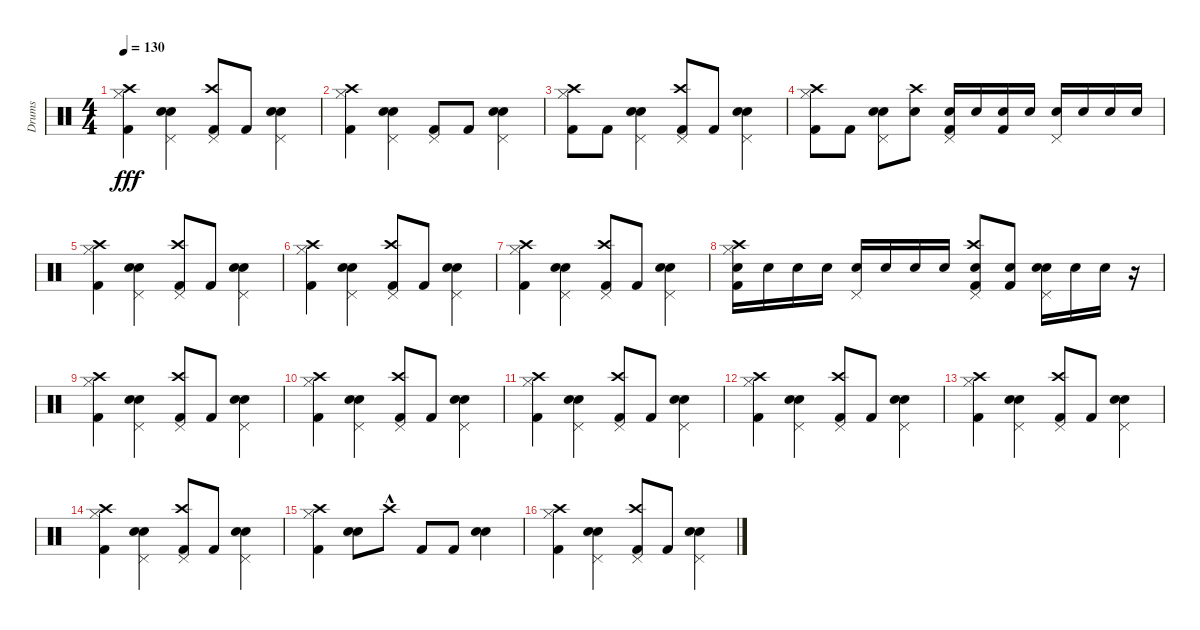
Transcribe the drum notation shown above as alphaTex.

\track ("Drums" "Drums") {instrument percussion}
\staff {score}
\articulation defaults
\ts (4 4)
\tempo 130
\clef neutral
\ks c
("Hi-Hat (closed)" "Kick (hit) 2" "Crash high (hit)").4{dy fff} ("Electric Snare (hit)" "Pedal Hi-Hat (hit)" "Snare (hit) 2").4 ("Pedal Hi-Hat (hit)" "Kick (hit) 2" "Crash high (hit)").8 "Kick (hit) 2".8 ("Electric Snare (hit)" "Pedal Hi-Hat (hit)" "Snare (hit) 2").4 |
("Hi-Hat (closed)" "Kick (hit) 2" "Crash high (hit)").4 ("Electric Snare (hit)" "Pedal Hi-Hat (hit)" "Snare (hit) 2").4 ("Pedal Hi-Hat (hit)" "Kick (hit) 2").8 "Kick (hit) 2".8 ("Electric Snare (hit)" "Pedal Hi-Hat (hit)" "Snare (hit) 2").4 |
("Hi-Hat (closed)" "Kick (hit) 2" "Crash high (hit)").8 "Kick (hit) 2".8 ("Electric Snare (hit)" "Pedal Hi-Hat (hit)" "Snare (hit) 2").4 ("Pedal Hi-Hat (hit)" "Kick (hit) 2" "Crash high (hit)").8 "Kick (hit) 2".8 ("Electric Snare (hit)" "Pedal Hi-Hat (hit)" "Snare (hit) 2").4 |
("Hi-Hat (closed)" "Kick (hit) 2" "Crash high (hit)").8 "Kick (hit) 2".8 ("Electric Snare (hit)" "Pedal Hi-Hat (hit)" "Snare (hit) 2").8 ("Crash high (hit)" "Snare (hit) 2").8 ("Pedal Hi-Hat (hit)" "Kick (hit) 2" "Snare (hit) 2").16 "Snare (hit) 2".16 ("Kick (hit) 2" "Snare (hit) 2").16 "Snare (hit) 2".16 ("Pedal Hi-Hat (hit)" "Electric Snare (hit)").16 "Electric Snare (hit)".16 "Snare (hit) 2".16 "Snare (hit) 2".16 |
("Hi-Hat (closed)" "Kick (hit) 2" "Crash high (hit)").4 ("Electric Snare (hit)" "Pedal Hi-Hat (hit)" "Snare (hit) 2").4 ("Pedal Hi-Hat (hit)" "Kick (hit) 2" "Crash high (hit)").8 "Kick (hit) 2".8 ("Electric Snare (hit)" "Pedal Hi-Hat (hit)" "Snare (hit) 2").4 |
("Hi-Hat (closed)" "Kick (hit) 2" "Crash high (hit)").4 ("Electric Snare (hit)" "Pedal Hi-Hat (hit)" "Snare (hit) 2").4 ("Pedal Hi-Hat (hit)" "Kick (hit) 2" "Crash high (hit)").8 "Kick (hit) 2".8 ("Electric Snare (hit)" "Pedal Hi-Hat (hit)" "Snare (hit) 2").4 |
("Hi-Hat (closed)" "Kick (hit) 2" "Crash high (hit)").4 ("Electric Snare (hit)" "Pedal Hi-Hat (hit)" "Snare (hit) 2").4 ("Pedal Hi-Hat (hit)" "Kick (hit) 2" "Crash high (hit)").8 "Kick (hit) 2".8 ("Electric Snare (hit)" "Pedal Hi-Hat (hit)" "Snare (hit) 2").4 |
("Hi-Hat (closed)" "Kick (hit) 2" "Crash high (hit)" "Electric Snare (hit)").16 "Electric Snare (hit)".16 "Electric Snare (hit)".16 "Electric Snare (hit)".16 ("Pedal Hi-Hat (hit)" "Snare (hit) 2").16 "Snare (hit) 2".16 "Snare (hit) 2".16 "Snare (hit) 2".16 ("Pedal Hi-Hat (hit)" "Kick (hit) 2" "Crash high (hit)" "Snare (hit) 2").8 ("Kick (hit) 2" "Snare (hit) 2").8 ("Electric Snare (hit)" "Pedal Hi-Hat (hit)" "Snare (hit) 2").16 "Snare (hit) 2".16 "Snare (hit) 2".16 r.16 |
("Hi-Hat (closed)" "Kick (hit) 2" "Crash high (hit)").4 ("Electric Snare (hit)" "Pedal Hi-Hat (hit)" "Snare (hit) 2").4 ("Pedal Hi-Hat (hit)" "Kick (hit) 2" "Crash high (hit)").8 "Kick (hit) 2".8 ("Electric Snare (hit)" "Pedal Hi-Hat (hit)" "Snare (hit) 2").4 |
("Hi-Hat (closed)" "Kick (hit) 2" "Crash high (hit)").4 ("Electric Snare (hit)" "Pedal Hi-Hat (hit)" "Snare (hit) 2").4 ("Pedal Hi-Hat (hit)" "Kick (hit) 2" "Crash high (hit)").8 "Kick (hit) 2".8 ("Electric Snare (hit)" "Pedal Hi-Hat (hit)" "Snare (hit) 2").4 |
("Hi-Hat (closed)" "Kick (hit) 2" "Crash high (hit)").4 ("Electric Snare (hit)" "Pedal Hi-Hat (hit)" "Snare (hit) 2").4 ("Pedal Hi-Hat (hit)" "Kick (hit) 2" "Crash high (hit)").8 "Kick (hit) 2".8 ("Electric Snare (hit)" "Pedal Hi-Hat (hit)" "Snare (hit) 2").4 |
("Hi-Hat (closed)" "Kick (hit) 2" "Crash high (hit)").4 ("Electric Snare (hit)" "Pedal Hi-Hat (hit)" "Snare (hit) 2").4 ("Pedal Hi-Hat (hit)" "Kick (hit) 2" "Crash high (hit)").8 "Kick (hit) 2".8 ("Electric Snare (hit)" "Pedal Hi-Hat (hit)" "Snare (hit) 2").4 |
("Hi-Hat (closed)" "Kick (hit) 2" "Crash high (hit)").4 ("Electric Snare (hit)" "Pedal Hi-Hat (hit)" "Snare (hit) 2").4 ("Pedal Hi-Hat (hit)" "Kick (hit) 2" "Crash high (hit)").8 "Kick (hit) 2".8 ("Electric Snare (hit)" "Pedal Hi-Hat (hit)" "Snare (hit) 2").4 |
("Hi-Hat (closed)" "Kick (hit) 2" "Crash high (hit)").4 ("Electric Snare (hit)" "Pedal Hi-Hat (hit)" "Snare (hit) 2").4 ("Pedal Hi-Hat (hit)" "Kick (hit) 2" "Crash high (hit)").8 "Kick (hit) 2".8 ("Electric Snare (hit)" "Pedal Hi-Hat (hit)" "Snare (hit) 2").4 |
("Hi-Hat (closed)" "Kick (hit) 2" "Crash high (hit)").4 ("Electric Snare (hit)" "Snare (hit) 2").8 "Crash high (hit)"{hac}.8 "Kick (hit) 2".8 "Kick (hit) 2".8 ("Electric Snare (hit)" "Snare (hit) 2").4 |
("Hi-Hat (closed)" "Kick (hit) 2" "Crash high (hit)").4 ("Electric Snare (hit)" "Pedal Hi-Hat (hit)" "Snare (hit) 2").4 ("Pedal Hi-Hat (hit)" "Kick (hit) 2" "Crash high (hit)").8 "Kick (hit) 2".8 ("Electric Snare (hit)" "Pedal Hi-Hat (hit)" "Snare (hit) 2").4
